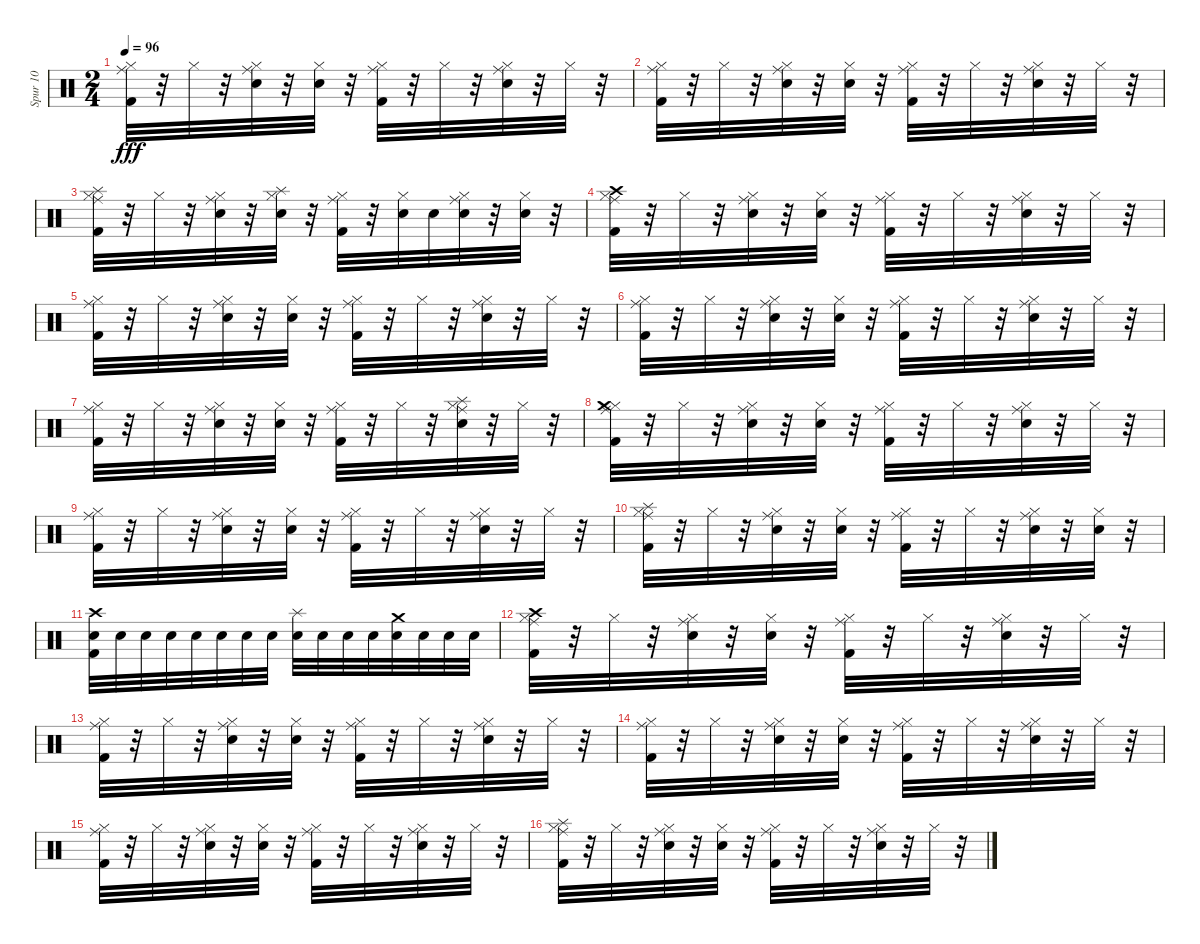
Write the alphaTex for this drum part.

\track ("Spur 10" "Spur 10") {instrument percussion}
\staff {score}
\articulation defaults
\ts (2 4)
\tempo 96
\clef neutral
\ks c
("Hi-Hat (closed)" "Kick (hit) 2" "Ride (middle)").32{dy fff} r.32 "Hi-Hat (closed)".32 r.32 ("Hi-Hat (closed)" "Ride (middle)" "Electric Snare (hit)").32 r.32 ("Hi-Hat (closed)" "Electric Snare (hit)").32 r.32 ("Hi-Hat (closed)" "Kick (hit) 2" "Ride (middle)").32 r.32 "Hi-Hat (closed)".32 r.32 ("Hi-Hat (closed)" "Ride (middle)" "Electric Snare (hit)").32 r.32 "Hi-Hat (closed)".32 r.32 |
("Hi-Hat (closed)" "Ride (middle)" "Kick (hit) 2").32 r.32 "Hi-Hat (closed)".32 r.32 ("Hi-Hat (closed)" "Ride (middle)" "Electric Snare (hit)").32 r.32 ("Hi-Hat (closed)" "Electric Snare (hit)").32 r.32 ("Hi-Hat (closed)" "Ride (middle)" "Kick (hit) 2").32 r.32 "Hi-Hat (closed)".32 r.32 ("Hi-Hat (closed)" "Ride (middle)" "Electric Snare (hit)").32 r.32 "Hi-Hat (closed)".32 r.32 |
("Hi-Hat (closed)" "Splash (hit)" "Ride (middle)" "Kick (hit) 2").32 r.32 "Hi-Hat (closed)".32 r.32 ("Hi-Hat (closed)" "Ride (middle)" "Electric Snare (hit)").32 r.32 ("Splash (hit)" "Hi-Hat (closed)" "Electric Snare (hit)").32 r.32 ("Hi-Hat (closed)" "Ride (middle)" "Kick (hit) 2").32 r.32 ("Hi-Hat (closed)" "Electric Snare (hit)").32 "Electric Snare (hit)".32 ("Hi-Hat (closed)" "Ride (middle)" "Electric Snare (hit)").32 r.32 ("Hi-Hat (closed)" "Electric Snare (hit)").32 r.32 |
("Hi-Hat (closed)" "Crash high (hit)" "Kick (hit) 2" "Ride (middle)").32 r.32 "Hi-Hat (closed)".32 r.32 ("Hi-Hat (closed)" "Ride (middle)" "Electric Snare (hit)").32 r.32 ("Hi-Hat (closed)" "Electric Snare (hit)").32 r.32 ("Hi-Hat (closed)" "Kick (hit) 2" "Ride (middle)").32 r.32 "Hi-Hat (closed)".32 r.32 ("Hi-Hat (closed)" "Ride (middle)" "Electric Snare (hit)").32 r.32 "Hi-Hat (closed)".32 r.32 |
("Hi-Hat (closed)" "Kick (hit) 2" "Ride (middle)").32 r.32 "Hi-Hat (closed)".32 r.32 ("Hi-Hat (closed)" "Ride (middle)" "Electric Snare (hit)").32 r.32 ("Hi-Hat (closed)" "Electric Snare (hit)").32 r.32 ("Hi-Hat (closed)" "Kick (hit) 2" "Ride (middle)").32 r.32 "Hi-Hat (closed)".32 r.32 ("Hi-Hat (closed)" "Ride (middle)" "Electric Snare (hit)").32 r.32 "Hi-Hat (closed)".32 r.32 |
("Hi-Hat (closed)" "Ride (middle)" "Kick (hit) 2").32 r.32 "Hi-Hat (closed)".32 r.32 ("Hi-Hat (closed)" "Ride (middle)" "Electric Snare (hit)").32 r.32 ("Hi-Hat (closed)" "Electric Snare (hit)").32 r.32 ("Hi-Hat (closed)" "Ride (middle)" "Kick (hit) 2").32 r.32 "Hi-Hat (closed)".32 r.32 ("Hi-Hat (closed)" "Ride (middle)" "Electric Snare (hit)").32 r.32 "Hi-Hat (closed)".32 r.32 |
("Hi-Hat (closed)" "Ride (middle)" "Kick (hit) 2").32 r.32 "Hi-Hat (closed)".32 r.32 ("Hi-Hat (closed)" "Ride (middle)" "Electric Snare (hit)").32 r.32 ("Hi-Hat (closed)" "Electric Snare (hit)").32 r.32 ("Hi-Hat (closed)" "Ride (middle)" "Kick (hit) 2").32 r.32 "Hi-Hat (closed)".32 r.32 ("Hi-Hat (closed)" "Splash (hit)" "Ride (middle)" "Electric Snare (hit)").32 r.32 "Hi-Hat (closed)".32 r.32 |
("Hi-Hat (closed)" "Crash medium (hit)" "Kick (hit) 2" "Ride (middle)").32 r.32 "Hi-Hat (closed)".32 r.32 ("Hi-Hat (closed)" "Ride (middle)" "Electric Snare (hit)").32 r.32 ("Hi-Hat (closed)" "Electric Snare (hit)").32 r.32 ("Hi-Hat (closed)" "Kick (hit) 2" "Ride (middle)").32 r.32 "Hi-Hat (closed)".32 r.32 ("Hi-Hat (closed)" "Ride (middle)" "Electric Snare (hit)").32 r.32 "Hi-Hat (closed)".32 r.32 |
("Hi-Hat (closed)" "Kick (hit) 2" "Ride (middle)").32 r.32 "Hi-Hat (closed)".32 r.32 ("Hi-Hat (closed)" "Ride (middle)" "Electric Snare (hit)").32 r.32 ("Hi-Hat (closed)" "Electric Snare (hit)").32 r.32 ("Hi-Hat (closed)" "Kick (hit) 2" "Ride (middle)").32 r.32 "Hi-Hat (closed)".32 r.32 ("Hi-Hat (closed)" "Ride (middle)" "Electric Snare (hit)").32 r.32 "Hi-Hat (closed)".32 r.32 |
("Hi-Hat (closed)" "Splash (hit)" "Ride (middle)" "Kick (hit) 2").32 r.32 "Hi-Hat (closed)".32 r.32 ("Hi-Hat (closed)" "Ride (middle)" "Electric Snare (hit)").32 r.32 ("Hi-Hat (closed)" "Electric Snare (hit)").32 r.32 ("Hi-Hat (closed)" "Ride (middle)" "Kick (hit) 2").32 r.32 "Hi-Hat (closed)".32 r.32 ("Hi-Hat (closed)" "Ride (middle)" "Electric Snare (hit)").32 r.32 ("Hi-Hat (closed)" "Electric Snare (hit)").32 r.32 |
("Crash high (hit)" "Electric Snare (hit)" "Kick (hit) 2").32 "Electric Snare (hit)".32 "Electric Snare (hit)".32 "Electric Snare (hit)".32 "Electric Snare (hit)".32 "Electric Snare (hit)".32 "Electric Snare (hit)".32 "Electric Snare (hit)".32 ("Splash (hit)" "Electric Snare (hit)").32 "Electric Snare (hit)".32 "Electric Snare (hit)".32 "Electric Snare (hit)".32 ("Crash medium (hit)" "Electric Snare (hit)").32 "Electric Snare (hit)".32 "Electric Snare (hit)".32 "Electric Snare (hit)".32 |
("Hi-Hat (closed)" "Crash high (hit)" "Kick (hit) 2" "Ride (middle)").32 r.32 "Hi-Hat (closed)".32 r.32 ("Hi-Hat (closed)" "Ride (middle)" "Electric Snare (hit)").32 r.32 ("Hi-Hat (closed)" "Electric Snare (hit)").32 r.32 ("Hi-Hat (closed)" "Kick (hit) 2" "Ride (middle)").32 r.32 "Hi-Hat (closed)".32 r.32 ("Hi-Hat (closed)" "Ride (middle)" "Electric Snare (hit)").32 r.32 "Hi-Hat (closed)".32 r.32 |
("Hi-Hat (closed)" "Kick (hit) 2" "Ride (middle)").32 r.32 "Hi-Hat (closed)".32 r.32 ("Hi-Hat (closed)" "Ride (middle)" "Electric Snare (hit)").32 r.32 ("Hi-Hat (closed)" "Electric Snare (hit)").32 r.32 ("Hi-Hat (closed)" "Kick (hit) 2" "Ride (middle)").32 r.32 "Hi-Hat (closed)".32 r.32 ("Hi-Hat (closed)" "Ride (middle)" "Electric Snare (hit)").32 r.32 "Hi-Hat (closed)".32 r.32 |
("Hi-Hat (closed)" "Ride (middle)" "Kick (hit) 2").32 r.32 "Hi-Hat (closed)".32 r.32 ("Hi-Hat (closed)" "Ride (middle)" "Electric Snare (hit)").32 r.32 ("Hi-Hat (closed)" "Electric Snare (hit)").32 r.32 ("Hi-Hat (closed)" "Ride (middle)" "Kick (hit) 2").32 r.32 "Hi-Hat (closed)".32 r.32 ("Hi-Hat (closed)" "Ride (middle)" "Electric Snare (hit)").32 r.32 "Hi-Hat (closed)".32 r.32 |
("Hi-Hat (closed)" "Ride (middle)" "Kick (hit) 2").32 r.32 "Hi-Hat (closed)".32 r.32 ("Hi-Hat (closed)" "Ride (middle)" "Electric Snare (hit)").32 r.32 ("Hi-Hat (closed)" "Electric Snare (hit)").32 r.32 ("Hi-Hat (closed)" "Ride (middle)" "Kick (hit) 2").32 r.32 "Hi-Hat (closed)".32 r.32 ("Hi-Hat (closed)" "Ride (middle)" "Electric Snare (hit)").32 r.32 "Hi-Hat (closed)".32 r.32 |
("Hi-Hat (closed)" "Splash (hit)" "Kick (hit) 2" "Ride (middle)").32 r.32 "Hi-Hat (closed)".32 r.32 ("Hi-Hat (closed)" "Ride (middle)" "Electric Snare (hit)").32 r.32 ("Hi-Hat (closed)" "Electric Snare (hit)").32 r.32 ("Hi-Hat (closed)" "Kick (hit) 2" "Ride (middle)").32 r.32 "Hi-Hat (closed)".32 r.32 ("Hi-Hat (closed)" "Ride (middle)" "Electric Snare (hit)").32 r.32 "Hi-Hat (closed)".32 r.32
